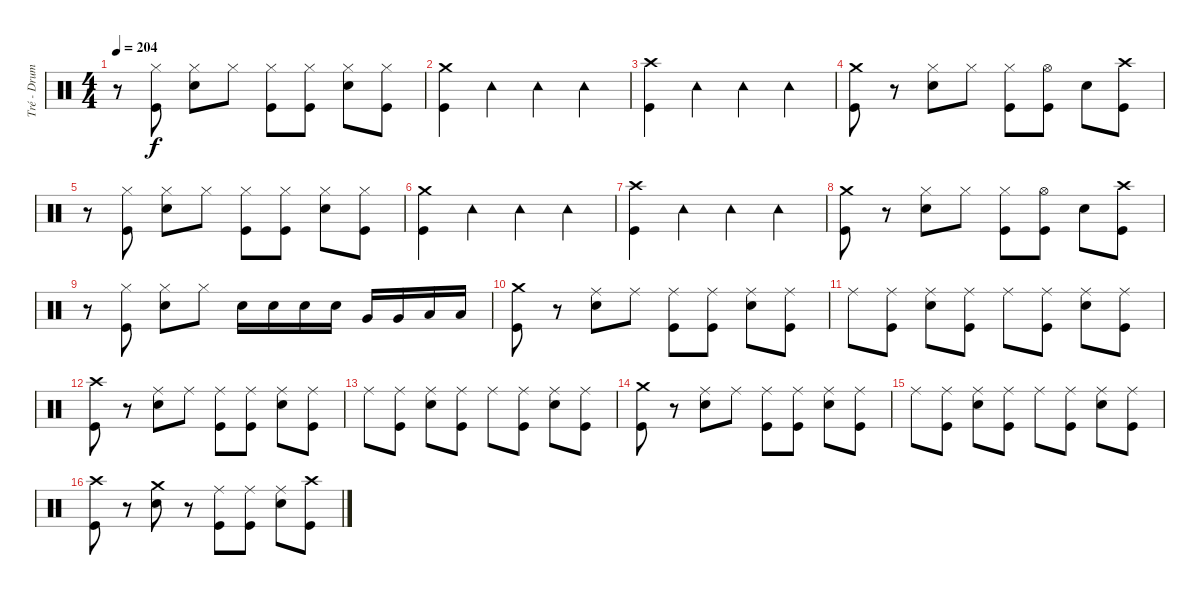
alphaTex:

\track ("Tré - Drums" "Tré - Drum") {instrument percussion}
\staff {score}
\articulation defaults
\ts (4 4)
\tempo 204
\clef neutral
\ks c
r.8{dy f} ("Hi-Hat (closed)" "Kick (hit)").8 ("Hi-Hat (closed)" "Electric Snare (hit)").8 "Hi-Hat (closed)".8 ("Hi-Hat (closed)" "Kick (hit)").8 ("Hi-Hat (closed)" "Kick (hit)").8 ("Hi-Hat (closed)" "Electric Snare (hit)").8 ("Hi-Hat (closed)" "Kick (hit)").8 |
("Crash medium (hit)" "Kick (hit)").4 "Tambourine (hit)".4 "Tambourine (hit)".4 "Tambourine (hit)".4 |
("Crash high (hit)" "Kick (hit)").4 "Tambourine (hit)".4 "Tambourine (hit)".4 "Tambourine (hit)".4 |
("Crash medium (hit)" "Kick (hit)").8 r.8 ("Hi-Hat (closed)" "Electric Snare (hit)").8 "Hi-Hat (closed)".8 ("Hi-Hat (closed)" "Kick (hit)").8 ("Hi-Hat (open)" "Kick (hit)").8 "Electric Snare (hit)".8 ("Crash high (hit)" "Kick (hit)").8 |
r.8 ("Hi-Hat (closed)" "Kick (hit)").8 ("Hi-Hat (closed)" "Electric Snare (hit)").8 "Hi-Hat (closed)".8 ("Hi-Hat (closed)" "Kick (hit)").8 ("Hi-Hat (closed)" "Kick (hit)").8 ("Hi-Hat (closed)" "Electric Snare (hit)").8 ("Hi-Hat (closed)" "Kick (hit)").8 |
("Crash medium (hit)" "Kick (hit)").4 "Tambourine (hit)".4 "Tambourine (hit)".4 "Tambourine (hit)".4 |
("Crash high (hit)" "Kick (hit)").4 "Tambourine (hit)".4 "Tambourine (hit)".4 "Tambourine (hit)".4 |
("Crash medium (hit)" "Kick (hit)").8 r.8 ("Hi-Hat (closed)" "Electric Snare (hit)").8 "Hi-Hat (closed)".8 ("Hi-Hat (closed)" "Kick (hit)").8 ("Hi-Hat (open)" "Kick (hit)").8 "Electric Snare (hit)".8 ("Crash high (hit)" "Kick (hit)").8 |
r.8 ("Hi-Hat (closed)" "Kick (hit)").8 ("Hi-Hat (closed)" "Electric Snare (hit)").8 "Hi-Hat (closed)".8 "Electric Snare (hit)".16 "Electric Snare (hit)".16 "Electric Snare (hit)".16 "Electric Snare (hit)".16 "Very Low Tom (hit)".16 "Very Low Tom (hit)".16 "Low Floor Tom (hit)".16 "Low Floor Tom (hit)".16 |
("Crash medium (hit)" "Kick (hit)").8 r.8 ("Ride (middle)" "Electric Snare (hit)").8 "Ride (middle)".8 ("Ride (middle)" "Kick (hit)").8 ("Ride (middle)" "Kick (hit)").8 ("Ride (middle)" "Electric Snare (hit)").8 ("Ride (middle)" "Kick (hit)").8 |
"Ride (middle)".8 ("Ride (middle)" "Kick (hit)").8 ("Ride (middle)" "Electric Snare (hit)").8 ("Ride (middle)" "Kick (hit)").8 "Ride (middle)".8 ("Ride (middle)" "Kick (hit)").8 ("Ride (middle)" "Electric Snare (hit)").8 ("Ride (middle)" "Kick (hit)").8 |
("Crash high (hit)" "Kick (hit)").8 r.8 ("Ride (middle)" "Electric Snare (hit)").8 "Ride (middle)".8 ("Ride (middle)" "Kick (hit)").8 ("Ride (middle)" "Kick (hit)").8 ("Ride (middle)" "Electric Snare (hit)").8 ("Ride (middle)" "Kick (hit)").8 |
"Ride (middle)".8 ("Ride (middle)" "Kick (hit)").8 ("Ride (middle)" "Electric Snare (hit)").8 ("Ride (middle)" "Kick (hit)").8 "Ride (middle)".8 ("Ride (middle)" "Kick (hit)").8 ("Ride (middle)" "Electric Snare (hit)").8 ("Ride (middle)" "Kick (hit)").8 |
("Crash medium (hit)" "Kick (hit)").8 r.8 ("Ride (middle)" "Electric Snare (hit)").8 "Ride (middle)".8 ("Ride (middle)" "Kick (hit)").8 ("Ride (middle)" "Kick (hit)").8 ("Ride (middle)" "Electric Snare (hit)").8 ("Ride (middle)" "Kick (hit)").8 |
"Ride (middle)".8 ("Ride (middle)" "Kick (hit)").8 ("Ride (middle)" "Electric Snare (hit)").8 ("Ride (middle)" "Kick (hit)").8 "Ride (middle)".8 ("Ride (middle)" "Kick (hit)").8 ("Ride (middle)" "Electric Snare (hit)").8 ("Ride (middle)" "Kick (hit)").8 |
("Crash high (hit)" "Kick (hit)").8 r.8 ("Crash medium (hit)" "Electric Snare (hit)").8 r.8 ("Ride (middle)" "Kick (hit)").8 ("Ride (middle)" "Kick (hit)").8 ("Ride (middle)" "Electric Snare (hit)").8 ("Crash high (hit)" "Kick (hit)").8
